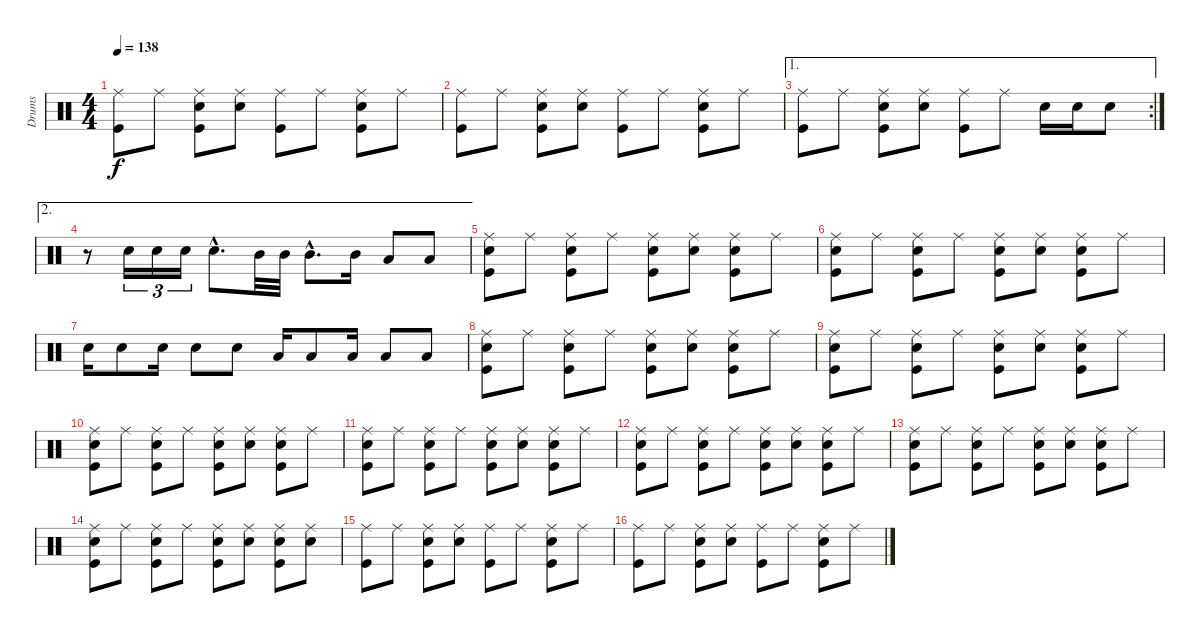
\track ("Drums" "Drums") {instrument percussion}
\staff {score}
\articulation defaults
\ts (4 4)
\tempo 138
\clef neutral
\ks c
("Ride (middle)" "Kick (hit)").8{dy f} "Ride (middle)".8 ("Ride (middle)" "Snare (hit) 2" "Kick (hit)").8 ("Ride (middle)" "Snare (hit) 2").8 ("Ride (middle)" "Kick (hit)").8 "Ride (middle)".8 ("Ride (middle)" "Snare (hit) 2" "Kick (hit)").8 "Ride (middle)".8 |
("Ride (middle)" "Kick (hit)").8 "Ride (middle)".8 ("Ride (middle)" "Snare (hit) 2" "Kick (hit)").8 ("Ride (middle)" "Snare (hit) 2").8 ("Ride (middle)" "Kick (hit)").8 "Ride (middle)".8 ("Ride (middle)" "Snare (hit) 2" "Kick (hit)").8 "Ride (middle)".8 |
\ae 1
\rc 2
("Ride (middle)" "Kick (hit)").8 "Ride (middle)".8 ("Ride (middle)" "Snare (hit) 2" "Kick (hit)").8 ("Ride (middle)" "Snare (hit) 2").8 ("Ride (middle)" "Kick (hit)").8 "Ride (middle)".8 "Snare (hit) 2".16 "Snare (hit) 2".16 "Snare (hit) 2".8 |
\ae 2
r.8 "Snare (hit) 2".16{tu (3 2)} "Snare (hit) 2".16{tu (3 2)} "Snare (hit) 2".16{tu (3 2)} "Snare (hit) 2"{hac}.8{d} "Mid Tom (hit)".32 "Mid Tom (hit)".32 "Mid Tom (hit)"{hac}.8{d} "Mid Tom (hit)".16 "Low Tom (hit)".8 "Low Tom (hit)".8 |
("Ride (middle)" "Snare (hit) 2" "Kick (hit)").8 "Ride (middle)".8 ("Ride (middle)" "Snare (hit) 2" "Kick (hit)").8 "Ride (middle)".8 ("Ride (middle)" "Snare (hit) 2" "Kick (hit)").8 ("Ride (middle)" "Snare (hit) 2").8 ("Ride (middle)" "Snare (hit) 2" "Kick (hit)").8 "Ride (middle)".8 |
("Ride (middle)" "Snare (hit) 2" "Kick (hit)").8 "Ride (middle)".8 ("Ride (middle)" "Snare (hit) 2" "Kick (hit)").8 "Ride (middle)".8 ("Ride (middle)" "Snare (hit) 2" "Kick (hit)").8 ("Ride (middle)" "Snare (hit) 2").8 ("Ride (middle)" "Snare (hit) 2" "Kick (hit)").8 "Ride (middle)".8 |
"Snare (hit) 2".16 "Snare (hit) 2".8 "Snare (hit) 2".16 "Snare (hit) 2".8 "Snare (hit) 2".8 "Low Tom (hit)".16 "Low Tom (hit)".8 "Low Tom (hit)".16 "Low Tom (hit)".8 "Low Tom (hit)".8 |
("Ride (middle)" "Snare (hit) 2" "Kick (hit)").8 "Ride (middle)".8 ("Ride (middle)" "Snare (hit) 2" "Kick (hit)").8 "Ride (middle)".8 ("Ride (middle)" "Snare (hit) 2" "Kick (hit)").8 ("Ride (middle)" "Snare (hit) 2").8 ("Ride (middle)" "Snare (hit) 2" "Kick (hit)").8 "Ride (middle)".8 |
("Ride (middle)" "Snare (hit) 2" "Kick (hit)").8 "Ride (middle)".8 ("Ride (middle)" "Snare (hit) 2" "Kick (hit)").8 "Ride (middle)".8 ("Ride (middle)" "Snare (hit) 2" "Kick (hit)").8 ("Ride (middle)" "Snare (hit) 2").8 ("Ride (middle)" "Snare (hit) 2" "Kick (hit)").8 "Ride (middle)".8 |
("Ride (middle)" "Snare (hit) 2" "Kick (hit)").8 "Ride (middle)".8 ("Ride (middle)" "Snare (hit) 2" "Kick (hit)").8 "Ride (middle)".8 ("Ride (middle)" "Snare (hit) 2" "Kick (hit)").8 ("Ride (middle)" "Snare (hit) 2").8 ("Ride (middle)" "Snare (hit) 2" "Kick (hit)").8 "Ride (middle)".8 |
("Ride (middle)" "Snare (hit) 2" "Kick (hit)").8 "Ride (middle)".8 ("Ride (middle)" "Snare (hit) 2" "Kick (hit)").8 "Ride (middle)".8 ("Ride (middle)" "Snare (hit) 2" "Kick (hit)").8 ("Ride (middle)" "Snare (hit) 2").8 ("Ride (middle)" "Snare (hit) 2" "Kick (hit)").8 "Ride (middle)".8 |
("Ride (middle)" "Snare (hit) 2" "Kick (hit)").8 "Ride (middle)".8 ("Ride (middle)" "Snare (hit) 2" "Kick (hit)").8 "Ride (middle)".8 ("Ride (middle)" "Snare (hit) 2" "Kick (hit)").8 ("Ride (middle)" "Snare (hit) 2").8 ("Ride (middle)" "Snare (hit) 2" "Kick (hit)").8 "Ride (middle)".8 |
("Ride (middle)" "Snare (hit) 2" "Kick (hit)").8 "Ride (middle)".8 ("Ride (middle)" "Snare (hit) 2" "Kick (hit)").8 "Ride (middle)".8 ("Ride (middle)" "Snare (hit) 2" "Kick (hit)").8 ("Ride (middle)" "Snare (hit) 2").8 ("Ride (middle)" "Snare (hit) 2" "Kick (hit)").8 "Ride (middle)".8 |
("Ride (middle)" "Snare (hit) 2" "Kick (hit)").8 "Ride (middle)".8 ("Ride (middle)" "Snare (hit) 2" "Kick (hit)").8 "Ride (middle)".8 ("Ride (middle)" "Snare (hit) 2" "Kick (hit)").8 ("Ride (middle)" "Snare (hit) 2").8 ("Ride (middle)" "Snare (hit) 2" "Kick (hit)").8 ("Ride (middle)" "Snare (hit) 2").8 |
("Ride (middle)" "Kick (hit)").8 "Ride (middle)".8 ("Ride (middle)" "Snare (hit) 2" "Kick (hit)").8 ("Ride (middle)" "Snare (hit) 2").8 ("Ride (middle)" "Kick (hit)").8 "Ride (middle)".8 ("Ride (middle)" "Snare (hit) 2" "Kick (hit)").8 "Ride (middle)".8 |
("Ride (middle)" "Kick (hit)").8 "Ride (middle)".8 ("Ride (middle)" "Snare (hit) 2" "Kick (hit)").8 ("Ride (middle)" "Snare (hit) 2").8 ("Ride (middle)" "Kick (hit)").8 "Ride (middle)".8 ("Ride (middle)" "Snare (hit) 2" "Kick (hit)").8 "Ride (middle)".8
